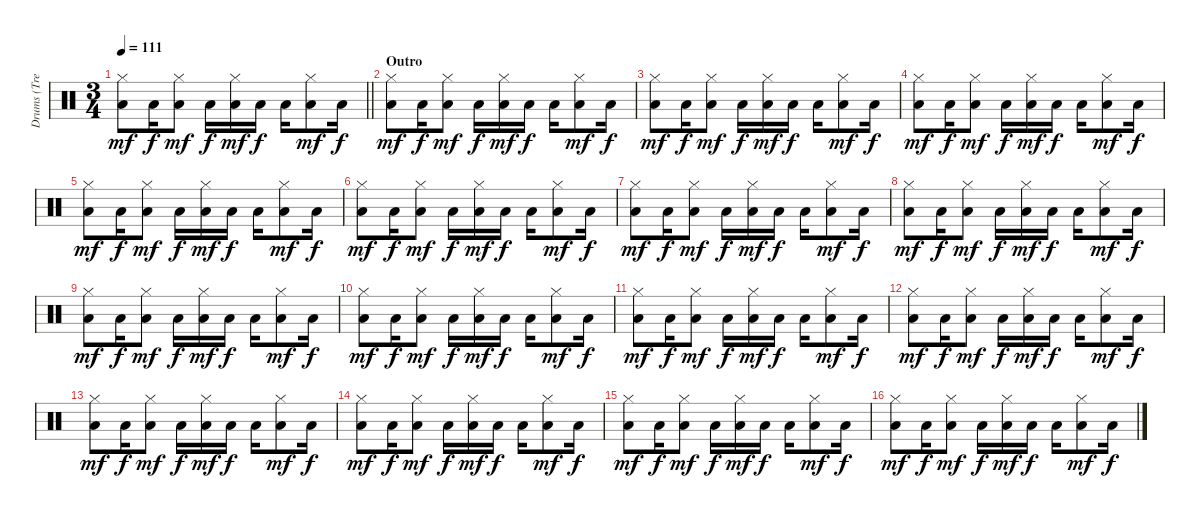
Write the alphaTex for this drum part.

\track ("Drums (Tre Cool)" "Drums (Tre") {instrument percussion}
\staff {score}
\articulation defaults
\ts (3 4)
\tempo 111
\clef neutral
\barLineRight lightlight
\ks c
("Hi-Hat (closed)" "Low Floor Tom (hit)").8{dy mf} "Low Floor Tom (hit)".16{dy f} ("Hi-Hat (closed)" "Low Tom (hit)").8{dy mf} "Low Tom (hit)".16{dy f} ("Hi-Hat (closed)" "Low Floor Tom (hit)").16{dy mf} "Low Floor Tom (hit)".16{dy f} "Low Floor Tom (hit)".16 ("Hi-Hat (closed)" "Low Tom (hit)").8{dy mf} "Low Tom (hit)".16{dy f} |
\section ("" "Outro")
("Hi-Hat (closed)" "Low Floor Tom (hit)").8{dy mf} "Low Floor Tom (hit)".16{dy f} ("Hi-Hat (closed)" "Low Tom (hit)").8{dy mf} "Low Tom (hit)".16{dy f} ("Hi-Hat (closed)" "Low Floor Tom (hit)").16{dy mf} "Low Floor Tom (hit)".16{dy f} "Low Floor Tom (hit)".16 ("Hi-Hat (closed)" "Low Tom (hit)").8{dy mf} "Low Tom (hit)".16{dy f} |
("Hi-Hat (closed)" "Low Floor Tom (hit)").8{dy mf} "Low Floor Tom (hit)".16{dy f} ("Hi-Hat (closed)" "Low Tom (hit)").8{dy mf} "Low Tom (hit)".16{dy f} ("Hi-Hat (closed)" "Low Floor Tom (hit)").16{dy mf} "Low Floor Tom (hit)".16{dy f} "Low Floor Tom (hit)".16 ("Hi-Hat (closed)" "Low Tom (hit)").8{dy mf} "Low Tom (hit)".16{dy f} |
("Hi-Hat (closed)" "Low Floor Tom (hit)").8{dy mf} "Low Floor Tom (hit)".16{dy f} ("Hi-Hat (closed)" "Low Tom (hit)").8{dy mf} "Low Tom (hit)".16{dy f} ("Hi-Hat (closed)" "Low Floor Tom (hit)").16{dy mf} "Low Floor Tom (hit)".16{dy f} "Low Floor Tom (hit)".16 ("Hi-Hat (closed)" "Low Tom (hit)").8{dy mf} "Low Tom (hit)".16{dy f} |
("Hi-Hat (closed)" "Low Floor Tom (hit)").8{dy mf} "Low Floor Tom (hit)".16{dy f} ("Hi-Hat (closed)" "Low Tom (hit)").8{dy mf} "Low Tom (hit)".16{dy f} ("Hi-Hat (closed)" "Low Floor Tom (hit)").16{dy mf} "Low Floor Tom (hit)".16{dy f} "Low Floor Tom (hit)".16 ("Hi-Hat (closed)" "Low Tom (hit)").8{dy mf} "Low Tom (hit)".16{dy f} |
("Hi-Hat (closed)" "Low Floor Tom (hit)").8{dy mf} "Low Floor Tom (hit)".16{dy f} ("Hi-Hat (closed)" "Low Tom (hit)").8{dy mf} "Low Tom (hit)".16{dy f} ("Hi-Hat (closed)" "Low Floor Tom (hit)").16{dy mf} "Low Floor Tom (hit)".16{dy f} "Low Floor Tom (hit)".16 ("Hi-Hat (closed)" "Low Tom (hit)").8{dy mf} "Low Tom (hit)".16{dy f} |
("Hi-Hat (closed)" "Low Floor Tom (hit)").8{dy mf} "Low Floor Tom (hit)".16{dy f} ("Hi-Hat (closed)" "Low Tom (hit)").8{dy mf} "Low Tom (hit)".16{dy f} ("Hi-Hat (closed)" "Low Floor Tom (hit)").16{dy mf} "Low Floor Tom (hit)".16{dy f} "Low Floor Tom (hit)".16 ("Hi-Hat (closed)" "Low Tom (hit)").8{dy mf} "Low Tom (hit)".16{dy f} |
("Hi-Hat (closed)" "Low Floor Tom (hit)").8{dy mf} "Low Floor Tom (hit)".16{dy f} ("Hi-Hat (closed)" "Low Tom (hit)").8{dy mf} "Low Tom (hit)".16{dy f} ("Hi-Hat (closed)" "Low Floor Tom (hit)").16{dy mf} "Low Floor Tom (hit)".16{dy f} "Low Floor Tom (hit)".16 ("Hi-Hat (closed)" "Low Tom (hit)").8{dy mf} "Low Tom (hit)".16{dy f} |
("Hi-Hat (closed)" "Low Floor Tom (hit)").8{dy mf} "Low Floor Tom (hit)".16{dy f} ("Hi-Hat (closed)" "Low Tom (hit)").8{dy mf} "Low Tom (hit)".16{dy f} ("Hi-Hat (closed)" "Low Floor Tom (hit)").16{dy mf} "Low Floor Tom (hit)".16{dy f} "Low Floor Tom (hit)".16 ("Hi-Hat (closed)" "Low Tom (hit)").8{dy mf} "Low Tom (hit)".16{dy f} |
("Hi-Hat (closed)" "Low Floor Tom (hit)").8{dy mf} "Low Floor Tom (hit)".16{dy f} ("Hi-Hat (closed)" "Low Tom (hit)").8{dy mf} "Low Tom (hit)".16{dy f} ("Hi-Hat (closed)" "Low Floor Tom (hit)").16{dy mf} "Low Floor Tom (hit)".16{dy f} "Low Floor Tom (hit)".16 ("Hi-Hat (closed)" "Low Tom (hit)").8{dy mf} "Low Tom (hit)".16{dy f} |
("Hi-Hat (closed)" "Low Floor Tom (hit)").8{dy mf} "Low Floor Tom (hit)".16{dy f} ("Hi-Hat (closed)" "Low Tom (hit)").8{dy mf} "Low Tom (hit)".16{dy f} ("Hi-Hat (closed)" "Low Floor Tom (hit)").16{dy mf} "Low Floor Tom (hit)".16{dy f} "Low Floor Tom (hit)".16 ("Hi-Hat (closed)" "Low Tom (hit)").8{dy mf} "Low Tom (hit)".16{dy f} |
("Hi-Hat (closed)" "Low Floor Tom (hit)").8{dy mf} "Low Floor Tom (hit)".16{dy f} ("Hi-Hat (closed)" "Low Tom (hit)").8{dy mf} "Low Tom (hit)".16{dy f} ("Hi-Hat (closed)" "Low Floor Tom (hit)").16{dy mf} "Low Floor Tom (hit)".16{dy f} "Low Floor Tom (hit)".16 ("Hi-Hat (closed)" "Low Tom (hit)").8{dy mf} "Low Tom (hit)".16{dy f} |
("Hi-Hat (closed)" "Low Floor Tom (hit)").8{dy mf} "Low Floor Tom (hit)".16{dy f} ("Hi-Hat (closed)" "Low Tom (hit)").8{dy mf} "Low Tom (hit)".16{dy f} ("Hi-Hat (closed)" "Low Floor Tom (hit)").16{dy mf} "Low Floor Tom (hit)".16{dy f} "Low Floor Tom (hit)".16 ("Hi-Hat (closed)" "Low Tom (hit)").8{dy mf} "Low Tom (hit)".16{dy f} |
("Hi-Hat (closed)" "Low Floor Tom (hit)").8{dy mf} "Low Floor Tom (hit)".16{dy f} ("Hi-Hat (closed)" "Low Tom (hit)").8{dy mf} "Low Tom (hit)".16{dy f} ("Hi-Hat (closed)" "Low Floor Tom (hit)").16{dy mf} "Low Floor Tom (hit)".16{dy f} "Low Floor Tom (hit)".16 ("Hi-Hat (closed)" "Low Tom (hit)").8{dy mf} "Low Tom (hit)".16{dy f} |
("Hi-Hat (closed)" "Low Floor Tom (hit)").8{dy mf} "Low Floor Tom (hit)".16{dy f} ("Hi-Hat (closed)" "Low Tom (hit)").8{dy mf} "Low Tom (hit)".16{dy f} ("Hi-Hat (closed)" "Low Floor Tom (hit)").16{dy mf} "Low Floor Tom (hit)".16{dy f} "Low Floor Tom (hit)".16 ("Hi-Hat (closed)" "Low Tom (hit)").8{dy mf} "Low Tom (hit)".16{dy f} |
("Hi-Hat (closed)" "Low Floor Tom (hit)").8{dy mf} "Low Floor Tom (hit)".16{dy f} ("Hi-Hat (closed)" "Low Tom (hit)").8{dy mf} "Low Tom (hit)".16{dy f} ("Hi-Hat (closed)" "Low Floor Tom (hit)").16{dy mf} "Low Floor Tom (hit)".16{dy f} "Low Floor Tom (hit)".16 ("Hi-Hat (closed)" "Low Tom (hit)").8{dy mf} "Low Tom (hit)".16{dy f}
